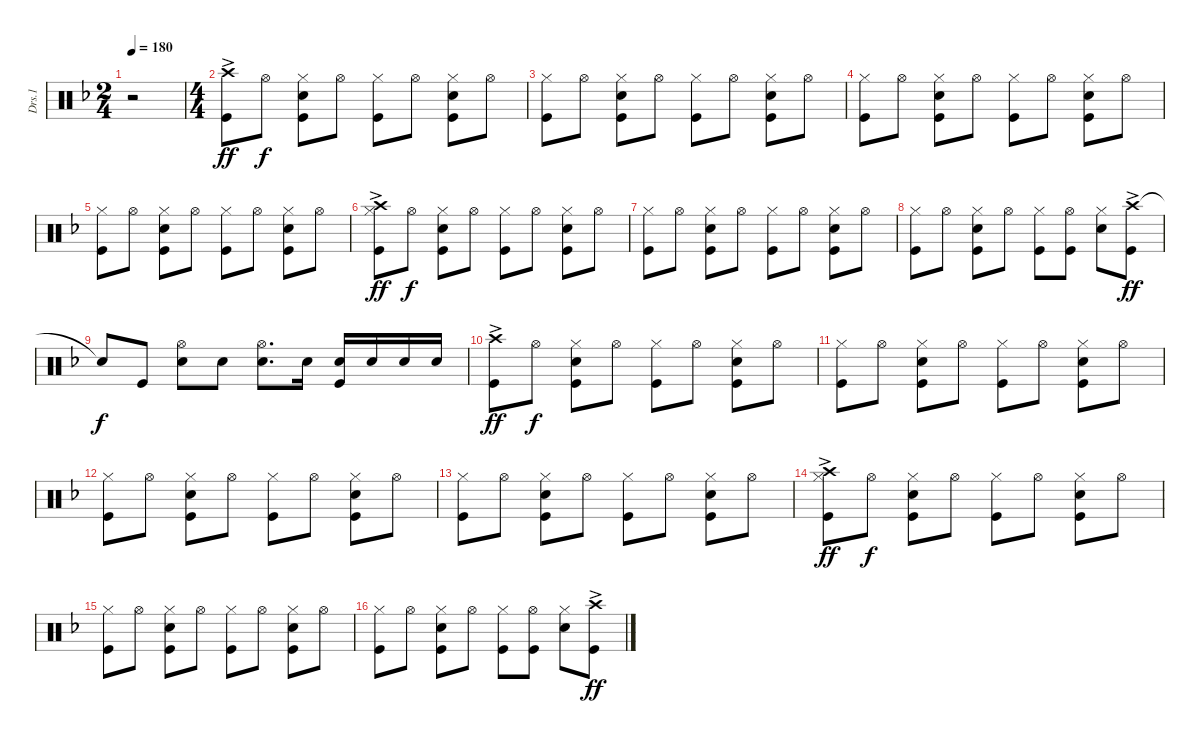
\track ("Drs.1" "Drs.1") {instrument percussion}
\staff {score}
\articulation defaults
\ts (2 4)
\tempo 180
\clef neutral
\ks f
r.2{dy ff} |
\ts (4 4)
("Crash high (hit)"{ac} "Kick (hit)").8 "Hi-Hat (open)".8{dy f} ("Hi-Hat (closed)" "Snare (hit) 2" "Kick (hit)").8 "Hi-Hat (open)".8 ("Hi-Hat (closed)" "Kick (hit)").8 "Hi-Hat (open)".8 ("Hi-Hat (closed)" "Snare (hit) 2" "Kick (hit)").8 "Hi-Hat (open)".8 |
("Hi-Hat (closed)" "Kick (hit)").8 "Hi-Hat (open)".8 ("Hi-Hat (closed)" "Snare (hit) 2" "Kick (hit)").8 "Hi-Hat (open)".8 ("Hi-Hat (closed)" "Kick (hit)").8 "Hi-Hat (open)".8 ("Hi-Hat (closed)" "Snare (hit) 2" "Kick (hit)").8 "Hi-Hat (open)".8 |
("Hi-Hat (closed)" "Kick (hit)").8 "Hi-Hat (open)".8 ("Hi-Hat (closed)" "Snare (hit) 2" "Kick (hit)").8 "Hi-Hat (open)".8 ("Hi-Hat (closed)" "Kick (hit)").8 "Hi-Hat (open)".8 ("Hi-Hat (closed)" "Snare (hit) 2" "Kick (hit)").8 "Hi-Hat (open)".8 |
("Hi-Hat (closed)" "Kick (hit)").8 "Hi-Hat (open)".8 ("Hi-Hat (closed)" "Snare (hit) 2" "Kick (hit)").8 "Hi-Hat (open)".8 ("Hi-Hat (closed)" "Kick (hit)").8 "Hi-Hat (open)".8 ("Hi-Hat (closed)" "Snare (hit) 2" "Kick (hit)").8 "Hi-Hat (open)".8 |
("Hi-Hat (closed)" "Crash high (hit)"{ac} "Kick (hit)").8{dy ff} "Hi-Hat (open)".8{dy f} ("Hi-Hat (closed)" "Snare (hit) 2" "Kick (hit)").8 "Hi-Hat (open)".8 ("Hi-Hat (closed)" "Kick (hit)").8 "Hi-Hat (open)".8 ("Hi-Hat (closed)" "Snare (hit) 2" "Kick (hit)").8 "Hi-Hat (open)".8 |
("Hi-Hat (closed)" "Kick (hit)").8 "Hi-Hat (open)".8 ("Hi-Hat (closed)" "Snare (hit) 2" "Kick (hit)").8 "Hi-Hat (open)".8 ("Hi-Hat (closed)" "Kick (hit)").8 "Hi-Hat (open)".8 ("Hi-Hat (closed)" "Snare (hit) 2" "Kick (hit)").8 "Hi-Hat (open)".8 |
("Hi-Hat (closed)" "Kick (hit)").8 "Hi-Hat (open)".8 ("Hi-Hat (closed)" "Snare (hit) 2" "Kick (hit)").8 "Hi-Hat (open)".8 ("Hi-Hat (closed)" "Kick (hit)").8 ("Hi-Hat (open)" "Kick (hit)").8 ("Hi-Hat (closed)" "Snare (hit) 2").8 ("Crash high (hit)"{ac} "Kick (hit)").8{dy ff} |
"Snare (hit)"{t}.8{dy f} "Kick (hit)".8 ("Hi-Hat (open)" "Snare (hit) 2").8 "Snare (hit) 2".8 ("Hi-Hat (open)" "Snare (hit) 2").8{d} "Snare (hit) 2".16 ("Snare (hit) 2" "Kick (hit)").16 "Snare (hit) 2".16 "Snare (hit) 2".16 "Snare (hit) 2".16 |
("Crash high (hit)"{ac} "Kick (hit)").8{dy ff} "Hi-Hat (open)".8{dy f} ("Hi-Hat (closed)" "Snare (hit) 2" "Kick (hit)").8 "Hi-Hat (open)".8 ("Hi-Hat (closed)" "Kick (hit)").8 "Hi-Hat (open)".8 ("Hi-Hat (closed)" "Snare (hit) 2" "Kick (hit)").8 "Hi-Hat (open)".8 |
("Hi-Hat (closed)" "Kick (hit)").8 "Hi-Hat (open)".8 ("Hi-Hat (closed)" "Snare (hit) 2" "Kick (hit)").8 "Hi-Hat (open)".8 ("Hi-Hat (closed)" "Kick (hit)").8 "Hi-Hat (open)".8 ("Hi-Hat (closed)" "Snare (hit) 2" "Kick (hit)").8 "Hi-Hat (open)".8 |
("Hi-Hat (closed)" "Kick (hit)").8 "Hi-Hat (open)".8 ("Hi-Hat (closed)" "Snare (hit) 2" "Kick (hit)").8 "Hi-Hat (open)".8 ("Hi-Hat (closed)" "Kick (hit)").8 "Hi-Hat (open)".8 ("Hi-Hat (closed)" "Snare (hit) 2" "Kick (hit)").8 "Hi-Hat (open)".8 |
("Hi-Hat (closed)" "Kick (hit)").8 "Hi-Hat (open)".8 ("Hi-Hat (closed)" "Snare (hit) 2" "Kick (hit)").8 "Hi-Hat (open)".8 ("Hi-Hat (closed)" "Kick (hit)").8 "Hi-Hat (open)".8 ("Hi-Hat (closed)" "Snare (hit) 2" "Kick (hit)").8 "Hi-Hat (open)".8 |
("Hi-Hat (closed)" "Crash high (hit)"{ac} "Kick (hit)").8{dy ff} "Hi-Hat (open)".8{dy f} ("Hi-Hat (closed)" "Snare (hit) 2" "Kick (hit)").8 "Hi-Hat (open)".8 ("Hi-Hat (closed)" "Kick (hit)").8 "Hi-Hat (open)".8 ("Hi-Hat (closed)" "Snare (hit) 2" "Kick (hit)").8 "Hi-Hat (open)".8 |
("Hi-Hat (closed)" "Kick (hit)").8 "Hi-Hat (open)".8 ("Hi-Hat (closed)" "Snare (hit) 2" "Kick (hit)").8 "Hi-Hat (open)".8 ("Hi-Hat (closed)" "Kick (hit)").8 "Hi-Hat (open)".8 ("Hi-Hat (closed)" "Snare (hit) 2" "Kick (hit)").8 "Hi-Hat (open)".8 |
("Hi-Hat (closed)" "Kick (hit)").8 "Hi-Hat (open)".8 ("Hi-Hat (closed)" "Snare (hit) 2" "Kick (hit)").8 "Hi-Hat (open)".8 ("Hi-Hat (closed)" "Kick (hit)").8 ("Hi-Hat (open)" "Kick (hit)").8 ("Hi-Hat (closed)" "Snare (hit) 2").8 ("Crash high (hit)"{ac} "Kick (hit)").8{dy ff}
